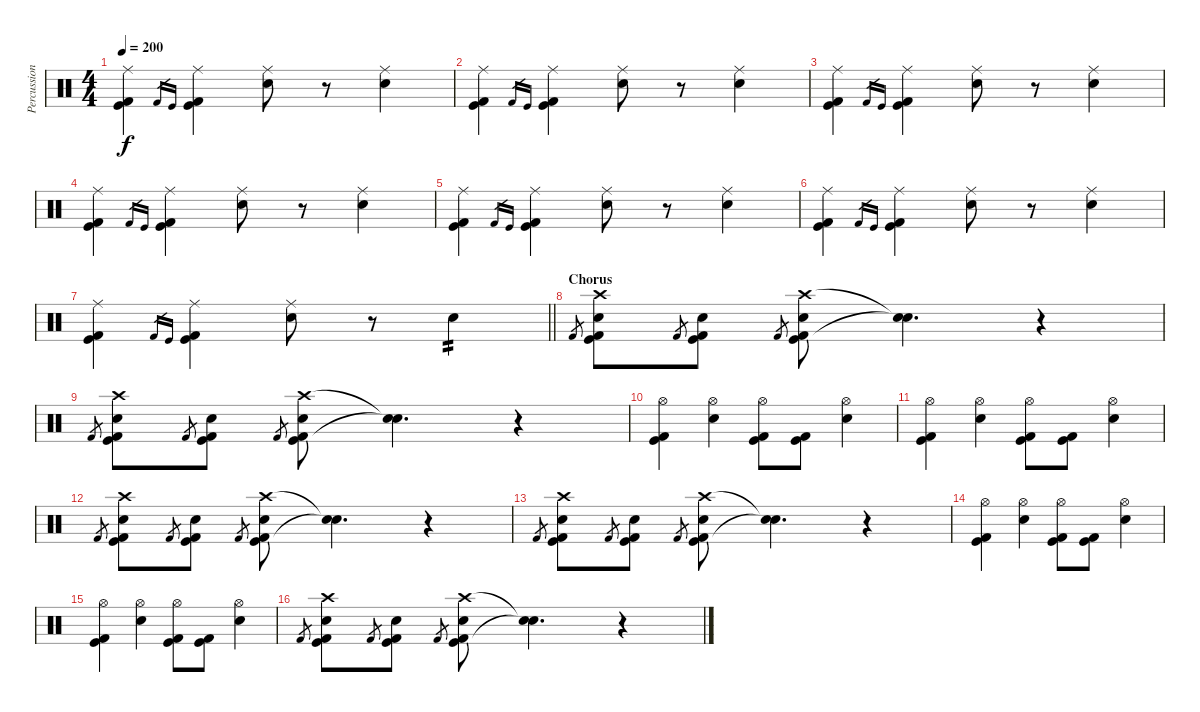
\track ("Percussion" "Percussion") {instrument percussion}
\staff {score}
\articulation defaults
\ts (4 4)
\tempo 200
\clef neutral
\ks c
("Ride (middle)" "Kick (hit) 2" "Kick (hit)").4{dy f} "Kick (hit) 2".16{gr} "Kick (hit)".16{gr} ("Ride (middle)" "Kick (hit) 2" "Kick (hit)").4 ("Ride (middle)" "Snare (hit) 2").8 r.8 ("Ride (middle)" "Snare (hit) 2").4 |
("Ride (middle)" "Kick (hit) 2" "Kick (hit)").4 "Kick (hit) 2".16{gr} "Kick (hit)".16{gr} ("Ride (middle)" "Kick (hit) 2" "Kick (hit)").4 ("Ride (middle)" "Snare (hit) 2").8 r.8 ("Ride (middle)" "Snare (hit) 2").4 |
("Ride (middle)" "Kick (hit) 2" "Kick (hit)").4 "Kick (hit) 2".16{gr} "Kick (hit)".16{gr} ("Ride (middle)" "Kick (hit) 2" "Kick (hit)").4 ("Ride (middle)" "Snare (hit) 2").8 r.8 ("Ride (middle)" "Snare (hit) 2").4 |
("Ride (middle)" "Kick (hit) 2" "Kick (hit)").4 "Kick (hit) 2".16{gr} "Kick (hit)".16{gr} ("Ride (middle)" "Kick (hit) 2" "Kick (hit)").4 ("Ride (middle)" "Snare (hit) 2").8 r.8 ("Ride (middle)" "Snare (hit) 2").4 |
("Ride (middle)" "Kick (hit) 2" "Kick (hit)").4 "Kick (hit) 2".16{gr} "Kick (hit)".16{gr} ("Ride (middle)" "Kick (hit) 2" "Kick (hit)").4 ("Ride (middle)" "Snare (hit) 2").8 r.8 ("Ride (middle)" "Snare (hit) 2").4 |
("Ride (middle)" "Kick (hit) 2" "Kick (hit)").4 "Kick (hit) 2".16{gr} "Kick (hit)".16{gr} ("Ride (middle)" "Kick (hit) 2" "Kick (hit)").4 ("Ride (middle)" "Snare (hit) 2").8 r.8 ("Ride (middle)" "Snare (hit) 2").4 |
\barLineRight lightlight
("Ride (middle)" "Kick (hit) 2" "Kick (hit)").4 "Kick (hit) 2".16{gr} "Kick (hit)".16{gr} ("Ride (middle)" "Kick (hit) 2" "Kick (hit)").4 ("Ride (middle)" "Snare (hit) 2").8 r.8 "Snare (hit) 2".4{tp 2} |
\section ("" "Chorus")
"Kick (hit) 2".8{gr} ("Crash high (hit)" "Kick (hit)" "Snare (hit) 2" "Kick (hit) 2").8{volume 16} "Kick (hit) 2".8{gr} ("Kick (hit)" "Snare (hit) 2" "Kick (hit) 2").8 "Kick (hit) 2".8{gr} ("Crash high (hit)" "Kick (hit)" "Snare (hit) 2" "Kick (hit) 2").8 ("Snare (hit)"{t} "Snare (hit)"{t}).4{d} r.4 |
"Kick (hit) 2".8{gr} ("Crash high (hit)" "Kick (hit)" "Snare (hit) 2" "Kick (hit) 2").8 "Kick (hit) 2".8{gr} ("Kick (hit)" "Snare (hit) 2" "Kick (hit) 2").8 "Kick (hit) 2".8{gr} ("Crash high (hit)" "Kick (hit)" "Snare (hit) 2" "Kick (hit) 2").8 ("Snare (hit)"{t} "Snare (hit)"{t}).4{d} r.4 |
("Hi-Hat (open)" "Kick (hit)" "Kick (hit) 2").4 ("Hi-Hat (open)" "Snare (hit) 2").4 ("Hi-Hat (open)" "Kick (hit)" "Kick (hit) 2").8 ("Kick (hit)" "Kick (hit) 2").8 ("Hi-Hat (open)" "Snare (hit) 2").4 |
("Hi-Hat (open)" "Kick (hit)" "Kick (hit) 2").4 ("Hi-Hat (open)" "Snare (hit) 2").4 ("Hi-Hat (open)" "Kick (hit)" "Kick (hit) 2").8 ("Kick (hit)" "Kick (hit) 2").8 ("Hi-Hat (open)" "Snare (hit) 2").4 |
"Kick (hit) 2".8{gr} ("Crash high (hit)" "Kick (hit)" "Snare (hit) 2" "Kick (hit) 2").8 "Kick (hit) 2".8{gr} ("Kick (hit)" "Snare (hit) 2" "Kick (hit) 2").8 "Kick (hit) 2".8{gr} ("Crash high (hit)" "Kick (hit)" "Snare (hit) 2" "Kick (hit) 2").8 ("Snare (hit)"{t} "Snare (hit)"{t}).4{d} r.4 |
"Kick (hit) 2".8{gr} ("Crash high (hit)" "Kick (hit)" "Snare (hit) 2" "Kick (hit) 2").8 "Kick (hit) 2".8{gr} ("Kick (hit)" "Snare (hit) 2" "Kick (hit) 2").8 "Kick (hit) 2".8{gr} ("Crash high (hit)" "Kick (hit)" "Snare (hit) 2" "Kick (hit) 2").8 ("Snare (hit)"{t} "Snare (hit)"{t}).4{d} r.4 |
("Hi-Hat (open)" "Kick (hit)" "Kick (hit) 2").4 ("Hi-Hat (open)" "Snare (hit) 2").4 ("Hi-Hat (open)" "Kick (hit)" "Kick (hit) 2").8 ("Kick (hit)" "Kick (hit) 2").8 ("Hi-Hat (open)" "Snare (hit) 2").4 |
("Hi-Hat (open)" "Kick (hit)" "Kick (hit) 2").4 ("Hi-Hat (open)" "Snare (hit) 2").4 ("Hi-Hat (open)" "Kick (hit)" "Kick (hit) 2").8 ("Kick (hit)" "Kick (hit) 2").8 ("Hi-Hat (open)" "Snare (hit) 2").4 |
"Kick (hit) 2".8{gr} ("Crash high (hit)" "Kick (hit)" "Snare (hit) 2" "Kick (hit) 2").8 "Kick (hit) 2".8{gr} ("Kick (hit)" "Snare (hit) 2" "Kick (hit) 2").8 "Kick (hit) 2".8{gr} ("Crash high (hit)" "Kick (hit)" "Snare (hit) 2" "Kick (hit) 2").8 ("Snare (hit)"{t} "Snare (hit)"{t}).4{d} r.4
